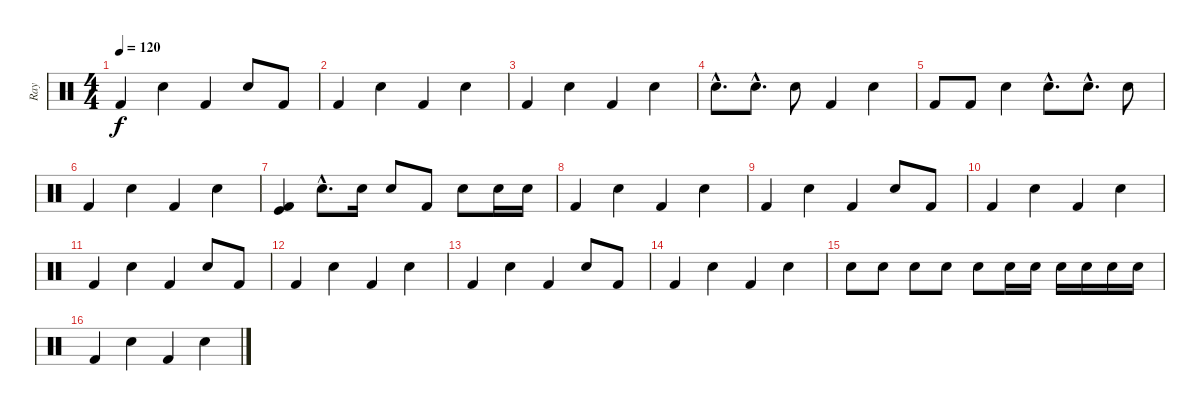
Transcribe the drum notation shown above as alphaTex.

\track ("Ray" "Ray") {instrument percussion}
\staff {score}
\articulation defaults
\ts (4 4)
\tempo 120
\clef neutral
\ks c "Kick (hit) 2".4{dy f} "Snare (hit) 2".4 "Kick (hit) 2".4 "Snare (hit) 2".8 "Kick (hit) 2".8
|
"Kick (hit) 2".4 "Snare (hit) 2".4 "Kick (hit) 2".4 "Snare (hit) 2".4 |
"Kick (hit) 2".4 "Snare (hit) 2".4 "Kick (hit) 2".4 "Snare (hit) 2".4 |
"Snare (hit) 2"{hac}.8{d} "Snare (hit) 2"{hac}.8{d} "Snare (hit) 2".8 "Kick (hit) 2".4 "Snare (hit) 2".4 |
"Kick (hit) 2".8 "Kick (hit) 2".8 "Snare (hit) 2".4 "Snare (hit) 2"{hac}.8{d} "Snare (hit) 2"{hac}.8{d} "Snare (hit) 2".8 |
"Kick (hit) 2".4 "Snare (hit) 2".4 "Kick (hit) 2".4 "Snare (hit) 2".4 |
("Kick (hit) 2" "Kick (hit)").4 "Snare (hit) 2"{hac}.8{d} "Snare (hit) 2".16 "Snare (hit) 2".8 "Kick (hit) 2".8 "Snare (hit) 2".8 "Snare (hit) 2".16 "Snare (hit) 2".16 |
"Kick (hit) 2".4 "Snare (hit) 2".4 "Kick (hit) 2".4 "Snare (hit) 2".4 |
"Kick (hit) 2".4 "Snare (hit) 2".4 "Kick (hit) 2".4 "Snare (hit) 2".8 "Kick (hit) 2".8 |
"Kick (hit) 2".4 "Snare (hit) 2".4 "Kick (hit) 2".4 "Snare (hit) 2".4 |
"Kick (hit) 2".4 "Snare (hit) 2".4 "Kick (hit) 2".4 "Snare (hit) 2".8 "Kick (hit) 2".8 |
"Kick (hit) 2".4 "Snare (hit) 2".4 "Kick (hit) 2".4 "Snare (hit) 2".4 |
"Kick (hit) 2".4 "Snare (hit) 2".4 "Kick (hit) 2".4 "Snare (hit) 2".8 "Kick (hit) 2".8 |
"Kick (hit) 2".4 "Snare (hit) 2".4 "Kick (hit) 2".4 "Snare (hit) 2".4 |
"Snare (hit) 2".8 "Snare (hit) 2".8 "Snare (hit) 2".8 "Snare (hit) 2".8 "Snare (hit) 2".8 "Snare (hit) 2".16 "Snare (hit) 2".16 "Snare (hit) 2".16 "Snare (hit) 2".16 "Snare (hit) 2".16 "Snare (hit) 2".16 |
"Kick (hit) 2".4 "Snare (hit) 2".4 "Kick (hit) 2".4 "Snare (hit) 2".4
